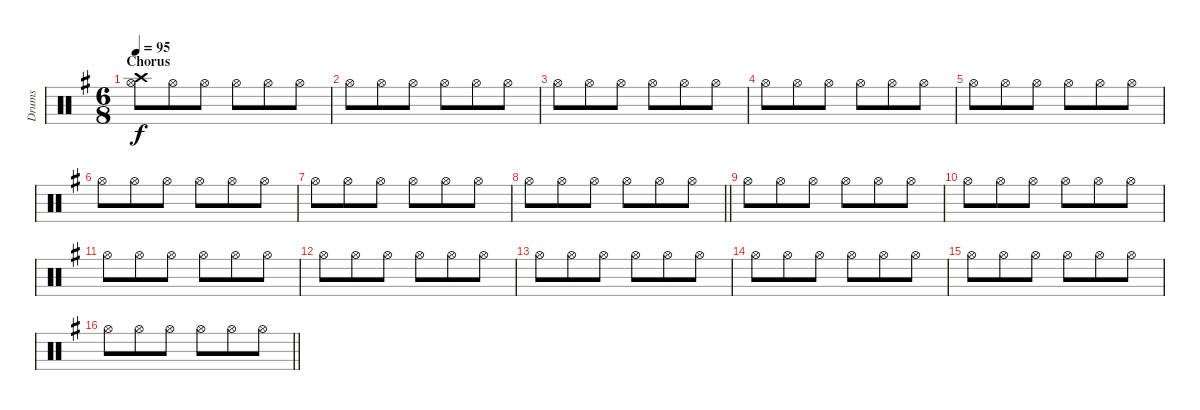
\track ("Drums" "Drums") {instrument percussion}
\staff {score}
\articulation defaults
\ts (6 8)
\section ("" "Chorus")
\tempo 95
\clef neutral
\ks g
("Hi-Hat (open)" "Crash high (hit)").8{dy f} "Hi-Hat (open)".8 "Hi-Hat (open)".8 "Hi-Hat (open)".8 "Hi-Hat (open)".8 "Hi-Hat (open)".8 |
"Hi-Hat (open)".8 "Hi-Hat (open)".8 "Hi-Hat (open)".8 "Hi-Hat (open)".8 "Hi-Hat (open)".8 "Hi-Hat (open)".8 |
"Hi-Hat (open)".8 "Hi-Hat (open)".8 "Hi-Hat (open)".8 "Hi-Hat (open)".8 "Hi-Hat (open)".8 "Hi-Hat (open)".8 |
"Hi-Hat (open)".8 "Hi-Hat (open)".8 "Hi-Hat (open)".8 "Hi-Hat (open)".8 "Hi-Hat (open)".8 "Hi-Hat (open)".8 |
"Hi-Hat (open)".8 "Hi-Hat (open)".8 "Hi-Hat (open)".8 "Hi-Hat (open)".8 "Hi-Hat (open)".8 "Hi-Hat (open)".8 |
"Hi-Hat (open)".8 "Hi-Hat (open)".8 "Hi-Hat (open)".8 "Hi-Hat (open)".8 "Hi-Hat (open)".8 "Hi-Hat (open)".8 |
"Hi-Hat (open)".8 "Hi-Hat (open)".8 "Hi-Hat (open)".8 "Hi-Hat (open)".8 "Hi-Hat (open)".8 "Hi-Hat (open)".8 |
\barLineRight lightlight "Hi-Hat (open)".8 "Hi-Hat (open)".8 "Hi-Hat (open)".8 "Hi-Hat (open)".8 "Hi-Hat (open)".8 "Hi-Hat (open)".8
|
"Hi-Hat (open)".8 "Hi-Hat (open)".8 "Hi-Hat (open)".8 "Hi-Hat (open)".8 "Hi-Hat (open)".8 "Hi-Hat (open)".8 |
"Hi-Hat (open)".8 "Hi-Hat (open)".8 "Hi-Hat (open)".8 "Hi-Hat (open)".8 "Hi-Hat (open)".8 "Hi-Hat (open)".8 |
"Hi-Hat (open)".8 "Hi-Hat (open)".8 "Hi-Hat (open)".8 "Hi-Hat (open)".8 "Hi-Hat (open)".8 "Hi-Hat (open)".8 |
"Hi-Hat (open)".8 "Hi-Hat (open)".8 "Hi-Hat (open)".8 "Hi-Hat (open)".8 "Hi-Hat (open)".8 "Hi-Hat (open)".8 |
"Hi-Hat (open)".8 "Hi-Hat (open)".8 "Hi-Hat (open)".8 "Hi-Hat (open)".8 "Hi-Hat (open)".8 "Hi-Hat (open)".8 |
"Hi-Hat (open)".8 "Hi-Hat (open)".8 "Hi-Hat (open)".8 "Hi-Hat (open)".8 "Hi-Hat (open)".8 "Hi-Hat (open)".8 |
"Hi-Hat (open)".8 "Hi-Hat (open)".8 "Hi-Hat (open)".8 "Hi-Hat (open)".8 "Hi-Hat (open)".8 "Hi-Hat (open)".8 |
\barLineRight lightlight "Hi-Hat (open)".8 "Hi-Hat (open)".8 "Hi-Hat (open)".8 "Hi-Hat (open)".8 "Hi-Hat (open)".8 "Hi-Hat (open)".8
